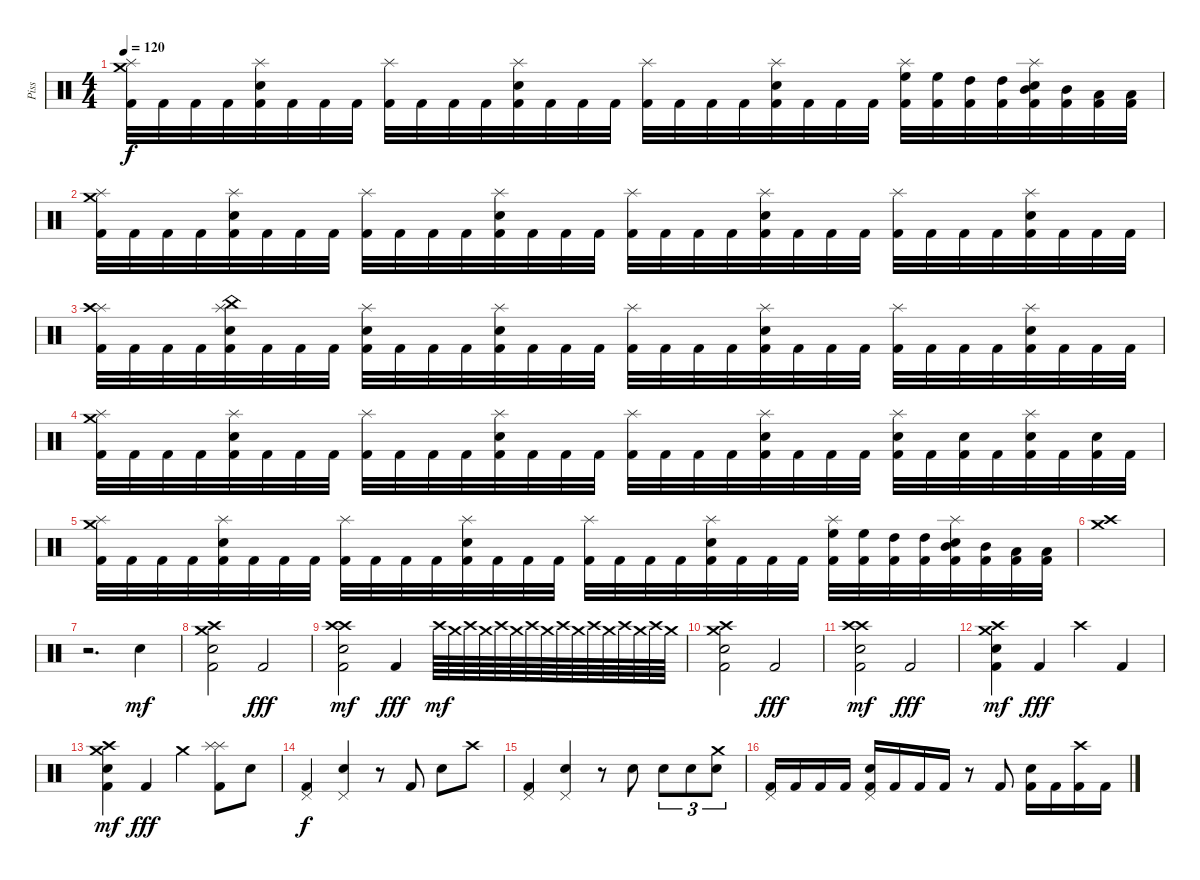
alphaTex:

\track ("Piss" "Piss") {instrument percussion}
\staff {score}
\articulation defaults
\ts (4 4)
\tempo 120
\clef neutral
\ks c
("Splash (hit)" "Crash medium (hit)" "Kick (hit) 2").32{dy f} "Kick (hit) 2".32 "Kick (hit) 2".32 "Kick (hit) 2".32 ("Splash (hit)" "Electric Snare (hit)" "Kick (hit) 2").32 "Kick (hit) 2".32 "Kick (hit) 2".32 "Kick (hit) 2".32 ("Splash (hit)" "Kick (hit) 2").32 "Kick (hit) 2".32 "Kick (hit) 2".32 "Kick (hit) 2".32 ("Splash (hit)" "Electric Snare (hit)" "Kick (hit) 2").32 "Kick (hit) 2".32 "Kick (hit) 2".32 "Kick (hit) 2".32 ("Splash (hit)" "Kick (hit) 2").32 "Kick (hit) 2".32 "Kick (hit) 2".32 "Kick (hit) 2".32 ("Splash (hit)" "Electric Snare (hit)" "Kick (hit) 2").32 "Kick (hit) 2".32 "Kick (hit) 2".32 "Kick (hit) 2".32 ("Splash (hit)" "High Floor Tom (hit)" "Kick (hit) 2").32 ("High Floor Tom (hit)" "Kick (hit) 2").32 ("High Tom (hit)" "Kick (hit) 2").32 ("High Tom (hit)" "Kick (hit) 2").32 ("Splash (hit)" "Mid Tom (hit)" "Electric Snare (hit)" "Kick (hit) 2").32 ("Mid Tom (hit)" "Kick (hit) 2").32 ("Low Tom (hit)" "Kick (hit) 2").32 ("Low Tom (hit)" "Kick (hit) 2").32 |
("Splash (hit)" "Crash medium (hit)" "Kick (hit) 2").32 "Kick (hit) 2".32 "Kick (hit) 2".32 "Kick (hit) 2".32 ("Splash (hit)" "Electric Snare (hit)" "Kick (hit) 2").32 "Kick (hit) 2".32 "Kick (hit) 2".32 "Kick (hit) 2".32 ("Splash (hit)" "Kick (hit) 2").32 "Kick (hit) 2".32 "Kick (hit) 2".32 "Kick (hit) 2".32 ("Splash (hit)" "Electric Snare (hit)" "Kick (hit) 2").32 "Kick (hit) 2".32 "Kick (hit) 2".32 "Kick (hit) 2".32 ("Splash (hit)" "Kick (hit) 2").32 "Kick (hit) 2".32 "Kick (hit) 2".32 "Kick (hit) 2".32 ("Splash (hit)" "Electric Snare (hit)" "Kick (hit) 2").32 "Kick (hit) 2".32 "Kick (hit) 2".32 "Kick (hit) 2".32 ("Splash (hit)" "Kick (hit) 2").32 "Kick (hit) 2".32 "Kick (hit) 2".32 "Kick (hit) 2".32 ("Splash (hit)" "Electric Snare (hit)" "Kick (hit) 2").32 "Kick (hit) 2".32 "Kick (hit) 2".32 "Kick (hit) 2".32 |
("Splash (hit)" "Crash high (hit)" "Kick (hit) 2").32 "Kick (hit) 2".32 "Kick (hit) 2".32 "Kick (hit) 2".32 ("Splash (hit)" "China (hit)" "Electric Snare (hit)" "Kick (hit) 2").32 "Kick (hit) 2".32 "Kick (hit) 2".32 "Kick (hit) 2".32 ("Splash (hit)" "Electric Snare (hit)" "Kick (hit) 2").32 "Kick (hit) 2".32 "Kick (hit) 2".32 "Kick (hit) 2".32 ("Splash (hit)" "Electric Snare (hit)" "Kick (hit) 2").32 "Kick (hit) 2".32 "Kick (hit) 2".32 "Kick (hit) 2".32 ("Splash (hit)" "Kick (hit) 2").32 "Kick (hit) 2".32 "Kick (hit) 2".32 "Kick (hit) 2".32 ("Splash (hit)" "Electric Snare (hit)" "Kick (hit) 2").32 "Kick (hit) 2".32 "Kick (hit) 2".32 "Kick (hit) 2".32 ("Splash (hit)" "Kick (hit) 2").32 "Kick (hit) 2".32 "Kick (hit) 2".32 "Kick (hit) 2".32 ("Splash (hit)" "Electric Snare (hit)" "Kick (hit) 2").32 "Kick (hit) 2".32 "Kick (hit) 2".32 "Kick (hit) 2".32 |
("Splash (hit)" "Crash medium (hit)" "Kick (hit) 2").32 "Kick (hit) 2".32 "Kick (hit) 2".32 "Kick (hit) 2".32 ("Splash (hit)" "Electric Snare (hit)" "Kick (hit) 2").32 "Kick (hit) 2".32 "Kick (hit) 2".32 "Kick (hit) 2".32 ("Splash (hit)" "Kick (hit) 2").32 "Kick (hit) 2".32 "Kick (hit) 2".32 "Kick (hit) 2".32 ("Splash (hit)" "Electric Snare (hit)" "Kick (hit) 2").32 "Kick (hit) 2".32 "Kick (hit) 2".32 "Kick (hit) 2".32 ("Splash (hit)" "Kick (hit) 2").32 "Kick (hit) 2".32 "Kick (hit) 2".32 "Kick (hit) 2".32 ("Splash (hit)" "Electric Snare (hit)" "Kick (hit) 2").32 "Kick (hit) 2".32 "Kick (hit) 2".32 "Kick (hit) 2".32 ("Splash (hit)" "Electric Snare (hit)" "Kick (hit) 2").32 "Kick (hit) 2".32 ("Electric Snare (hit)" "Kick (hit) 2").32 "Kick (hit) 2".32 ("Splash (hit)" "Electric Snare (hit)" "Kick (hit) 2").32 "Kick (hit) 2".32 ("Electric Snare (hit)" "Kick (hit) 2").32 "Kick (hit) 2".32 |
("Splash (hit)" "Crash medium (hit)" "Kick (hit) 2").32 "Kick (hit) 2".32 "Kick (hit) 2".32 "Kick (hit) 2".32 ("Splash (hit)" "Electric Snare (hit)" "Kick (hit) 2").32 "Kick (hit) 2".32 "Kick (hit) 2".32 "Kick (hit) 2".32 ("Splash (hit)" "Kick (hit) 2").32 "Kick (hit) 2".32 "Kick (hit) 2".32 "Kick (hit) 2".32 ("Splash (hit)" "Electric Snare (hit)" "Kick (hit) 2").32 "Kick (hit) 2".32 "Kick (hit) 2".32 "Kick (hit) 2".32 ("Splash (hit)" "Kick (hit) 2").32 "Kick (hit) 2".32 "Kick (hit) 2".32 "Kick (hit) 2".32 ("Splash (hit)" "Electric Snare (hit)" "Kick (hit) 2").32 "Kick (hit) 2".32 "Kick (hit) 2".32 "Kick (hit) 2".32 ("Splash (hit)" "High Floor Tom (hit)" "Kick (hit) 2").32 ("High Floor Tom (hit)" "Kick (hit) 2").32 ("High Tom (hit)" "Kick (hit) 2").32 ("High Tom (hit)" "Kick (hit) 2").32 ("Splash (hit)" "Mid Tom (hit)" "Electric Snare (hit)" "Kick (hit) 2").32 ("Mid Tom (hit)" "Kick (hit) 2").32 ("Low Tom (hit)" "Kick (hit) 2").32 ("Low Tom (hit)" "Kick (hit) 2").32 |
("Crash medium (hit)" "Crash high (hit)").1 |
r.2{d} "Electric Snare (hit)".4{dy mf} |
("Crash medium (hit)" "Crash high (hit)" "Electric Snare (hit)" "Kick (hit) 2").2 "Kick (hit) 2".2{dy fff} |
("Crash high (hit)" "Crash high (hit)" "Electric Snare (hit)" "Kick (hit) 2").2{dy mf} "Kick (hit) 2".4{dy fff} "Crash high (hit)".64{dy mf} "Crash medium (hit)".64 "Crash high (hit)".64 "Crash medium (hit)".64 "Crash high (hit)".64 "Crash medium (hit)".64 "Crash high (hit)".64 "Crash medium (hit)".64 "Crash high (hit)".64 "Crash medium (hit)".64 "Crash high (hit)".64 "Crash medium (hit)".64 "Crash high (hit)".64 "Crash medium (hit)".64 "Crash high (hit)".64 "Crash medium (hit)".64 |
("Crash medium (hit)" "Crash high (hit)" "Electric Snare (hit)" "Kick (hit) 2").2 "Kick (hit) 2".2{dy fff} |
("Crash high (hit)" "Crash high (hit)" "Electric Snare (hit)" "Kick (hit) 2").2{dy mf} "Kick (hit) 2".2{dy fff} |
("Crash medium (hit)" "Crash high (hit)" "Electric Snare (hit)" "Kick (hit) 2").4{dy mf} "Kick (hit) 2".4{dy fff} "Crash high (hit)".4 "Kick (hit) 2".4 |
("Crash medium (hit)" "Crash high (hit)" "Electric Snare (hit)" "Kick (hit) 2").4{dy mf} "Kick (hit) 2".4{dy fff} "Crash medium (hit)".4 ("Splash (hit)" "Splash (hit)" "Kick (hit) 2").8 "Electric Snare (hit)".8 |
("Pedal Hi-Hat (hit)" "Kick (hit) 2").4{dy f} ("Pedal Hi-Hat (hit)" "Electric Snare (hit)").4 r.8 "Kick (hit) 2".8 "Electric Snare (hit)".8 "Crash high (hit)".8 |
("Pedal Hi-Hat (hit)" "Kick (hit) 2").4 ("Pedal Hi-Hat (hit)" "Electric Snare (hit)").4 r.8 "Electric Snare (hit)".8 "Electric Snare (hit)".8{tu (3 2)} "Electric Snare (hit)".8{tu (3 2)} ("Crash medium (hit)" "Electric Snare (hit)").8{tu (3 2)} |
("Pedal Hi-Hat (hit)" "Kick (hit) 2").16 "Kick (hit) 2".16 "Kick (hit) 2".16 "Kick (hit) 2".16 ("Pedal Hi-Hat (hit)" "Electric Snare (hit)" "Kick (hit) 2").16 "Kick (hit) 2".16 "Kick (hit) 2".16 "Kick (hit) 2".16 r.8 "Kick (hit) 2".8 ("Electric Snare (hit)" "Kick (hit) 2").16 "Kick (hit) 2".16 ("Crash high (hit)" "Kick (hit) 2").16 "Kick (hit) 2".16
